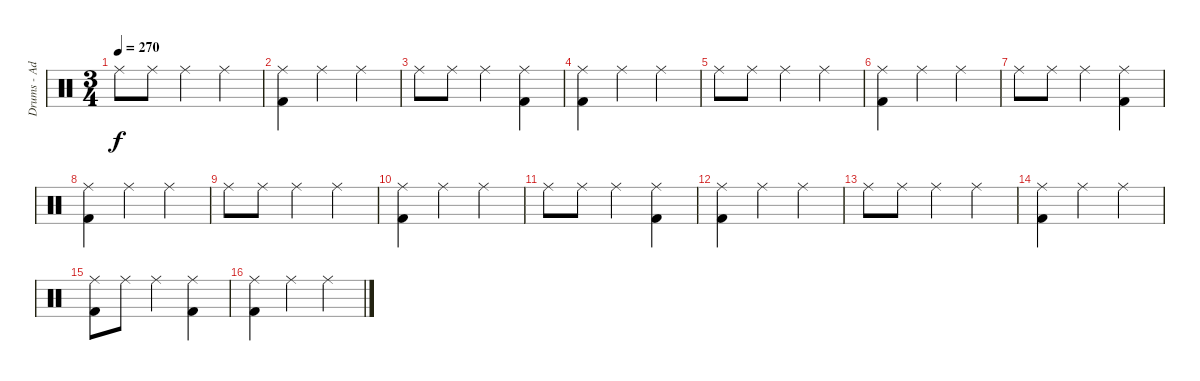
\track ("Drums - Adam" "Drums - Ad") {instrument percussion}
\staff {score}
\articulation defaults
\ts (3 4)
\tempo 270
\clef neutral
\ks c "Ride (middle)".8{dy f} "Ride (middle)".8 "Ride (middle)".4 "Ride (middle)".4
|
("Ride (middle)" "Kick (hit) 2").4 "Ride (middle)".4 "Ride (middle)".4 |
"Ride (middle)".8 "Ride (middle)".8 "Ride (middle)".4 ("Ride (middle)" "Kick (hit) 2").4 |
("Ride (middle)" "Kick (hit) 2").4 "Ride (middle)".4 "Ride (middle)".4 |
"Ride (middle)".8 "Ride (middle)".8 "Ride (middle)".4 "Ride (middle)".4 |
("Ride (middle)" "Kick (hit) 2").4 "Ride (middle)".4 "Ride (middle)".4 |
"Ride (middle)".8 "Ride (middle)".8 "Ride (middle)".4 ("Ride (middle)" "Kick (hit) 2").4 |
("Ride (middle)" "Kick (hit) 2").4 "Ride (middle)".4 "Ride (middle)".4 |
"Ride (middle)".8 "Ride (middle)".8 "Ride (middle)".4 "Ride (middle)".4 |
("Ride (middle)" "Kick (hit) 2").4 "Ride (middle)".4 "Ride (middle)".4 |
"Ride (middle)".8 "Ride (middle)".8 "Ride (middle)".4 ("Ride (middle)" "Kick (hit) 2").4 |
("Ride (middle)" "Kick (hit) 2").4 "Ride (middle)".4 "Ride (middle)".4 |
"Ride (middle)".8 "Ride (middle)".8 "Ride (middle)".4 "Ride (middle)".4 |
("Ride (middle)" "Kick (hit) 2").4 "Ride (middle)".4 "Ride (middle)".4 |
("Ride (middle)" "Kick (hit) 2").8 "Ride (middle)".8 "Ride (middle)".4 ("Ride (middle)" "Kick (hit) 2").4 |
("Ride (middle)" "Kick (hit) 2").4 "Ride (middle)".4 "Ride (middle)".4
